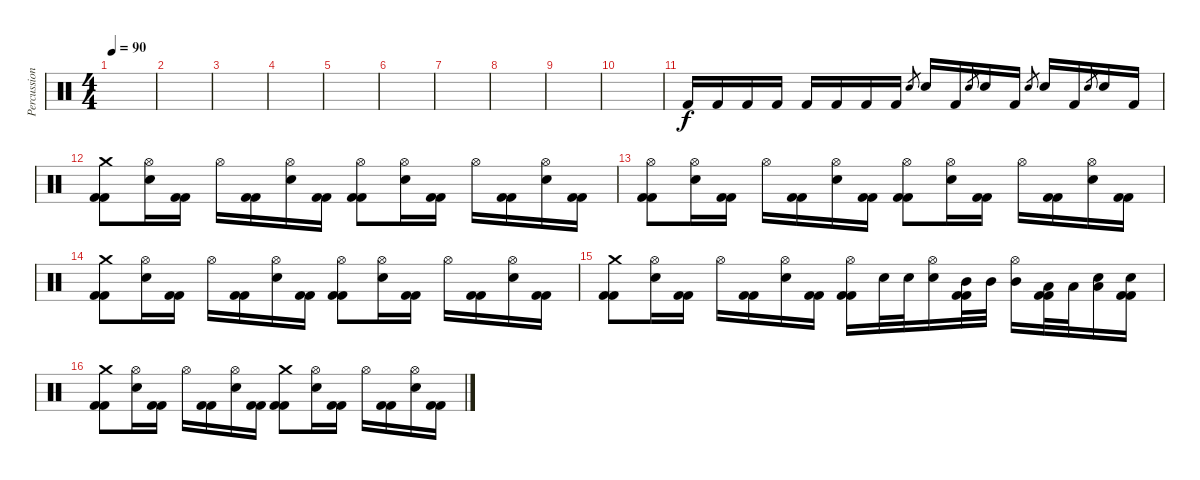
\track ("Percussioni" "Percussion") {instrument percussion}
\staff {score}
\articulation defaults
\ts (4 4)
\tempo 90
\clef neutral
\ks c
|
|
|
|
|
|
|
|
|
|
"Kick (hit) 2".16 "Kick (hit) 2".16 "Kick (hit) 2".16 "Kick (hit) 2".16 "Kick (hit) 2".16 "Kick (hit) 2".16 "Kick (hit) 2".16 "Kick (hit) 2".16 "Electric Snare (hit)".8{gr} "Electric Snare (hit)".16 "Kick (hit) 2".16 "Electric Snare (hit)".8{gr} "Electric Snare (hit)".16 "Kick (hit) 2".16 "Electric Snare (hit)".8{gr} "Electric Snare (hit)".16 "Kick (hit) 2".16 "Electric Snare (hit)".8{gr} "Electric Snare (hit)".16 "Kick (hit) 2".16 |
("Crash medium (hit)" "Kick (hit) 2" "Kick (hit) 2").8 ("Hi-Hat (open)" "Electric Snare (hit)").16 ("Kick (hit) 2" "Kick (hit) 2").16 "Hi-Hat (open)".16 ("Kick (hit) 2" "Kick (hit) 2").16 ("Hi-Hat (open)" "Electric Snare (hit)").16 ("Kick (hit) 2" "Kick (hit) 2").16 ("Hi-Hat (open)" "Kick (hit) 2" "Kick (hit) 2").8 ("Hi-Hat (open)" "Electric Snare (hit)").16 ("Kick (hit) 2" "Kick (hit) 2").16 "Hi-Hat (open)".16 ("Kick (hit) 2" "Kick (hit) 2").16 ("Hi-Hat (open)" "Electric Snare (hit)").16 ("Kick (hit) 2" "Kick (hit) 2").16 |
("Hi-Hat (open)" "Kick (hit) 2" "Kick (hit) 2").8 ("Hi-Hat (open)" "Electric Snare (hit)").16 ("Kick (hit) 2" "Kick (hit) 2").16 "Hi-Hat (open)".16 ("Kick (hit) 2" "Kick (hit) 2").16 ("Hi-Hat (open)" "Electric Snare (hit)").16 ("Kick (hit) 2" "Kick (hit) 2").16 ("Hi-Hat (open)" "Kick (hit) 2" "Kick (hit) 2").8 ("Hi-Hat (open)" "Electric Snare (hit)").16 ("Kick (hit) 2" "Kick (hit) 2").16 "Hi-Hat (open)".16 ("Kick (hit) 2" "Kick (hit) 2").16 ("Hi-Hat (open)" "Electric Snare (hit)").16 ("Kick (hit) 2" "Kick (hit) 2").16 |
("Crash medium (hit)" "Kick (hit) 2" "Kick (hit) 2").8 ("Hi-Hat (open)" "Electric Snare (hit)").16 ("Kick (hit) 2" "Kick (hit) 2").16 "Hi-Hat (open)".16 ("Kick (hit) 2" "Kick (hit) 2").16 ("Hi-Hat (open)" "Electric Snare (hit)").16 ("Kick (hit) 2" "Kick (hit) 2").16 ("Hi-Hat (open)" "Kick (hit) 2" "Kick (hit) 2").8 ("Hi-Hat (open)" "Electric Snare (hit)").16 ("Kick (hit) 2" "Kick (hit) 2").16 "Hi-Hat (open)".16 ("Kick (hit) 2" "Kick (hit) 2").16 ("Hi-Hat (open)" "Electric Snare (hit)").16 ("Kick (hit) 2" "Kick (hit) 2").16 |
("Crash medium (hit)" "Kick (hit) 2" "Kick (hit) 2").8 ("Hi-Hat (open)" "Electric Snare (hit)").16 ("Kick (hit) 2" "Kick (hit) 2").16 "Hi-Hat (open)".16 ("Kick (hit) 2" "Kick (hit) 2").16 ("Hi-Hat (open)" "Electric Snare (hit)").16 ("Kick (hit) 2" "Kick (hit) 2").16 ("Hi-Hat (open)" "Kick (hit) 2" "Kick (hit) 2").16 "Electric Snare (hit)".32 "Electric Snare (hit)".32 ("Hi-Hat (open)" "Electric Snare (hit)").16 ("Mid Tom (hit)" "Kick (hit) 2" "Kick (hit) 2").32 "Mid Tom (hit)".32 ("Hi-Hat (open)" "Mid Tom (hit)").16 ("Low Tom (hit)" "Kick (hit) 2" "Kick (hit) 2").32 "Low Tom (hit)".32 ("Low Tom (hit)" "Electric Snare (hit)").16 ("Electric Snare (hit)" "Kick (hit) 2" "Kick (hit) 2").16 |
("Crash medium (hit)" "Kick (hit) 2" "Kick (hit) 2").8 ("Hi-Hat (open)" "Electric Snare (hit)").16 ("Kick (hit) 2" "Kick (hit) 2").16 "Hi-Hat (open)".16 ("Kick (hit) 2" "Kick (hit) 2").16 ("Hi-Hat (open)" "Electric Snare (hit)").16 ("Kick (hit) 2" "Kick (hit) 2").16 ("Crash medium (hit)" "Kick (hit) 2" "Kick (hit) 2").8 ("Hi-Hat (open)" "Electric Snare (hit)").16 ("Kick (hit) 2" "Kick (hit) 2").16 "Hi-Hat (open)".16 ("Kick (hit) 2" "Kick (hit) 2").16 ("Hi-Hat (open)" "Electric Snare (hit)").16 ("Kick (hit) 2" "Kick (hit) 2").16
